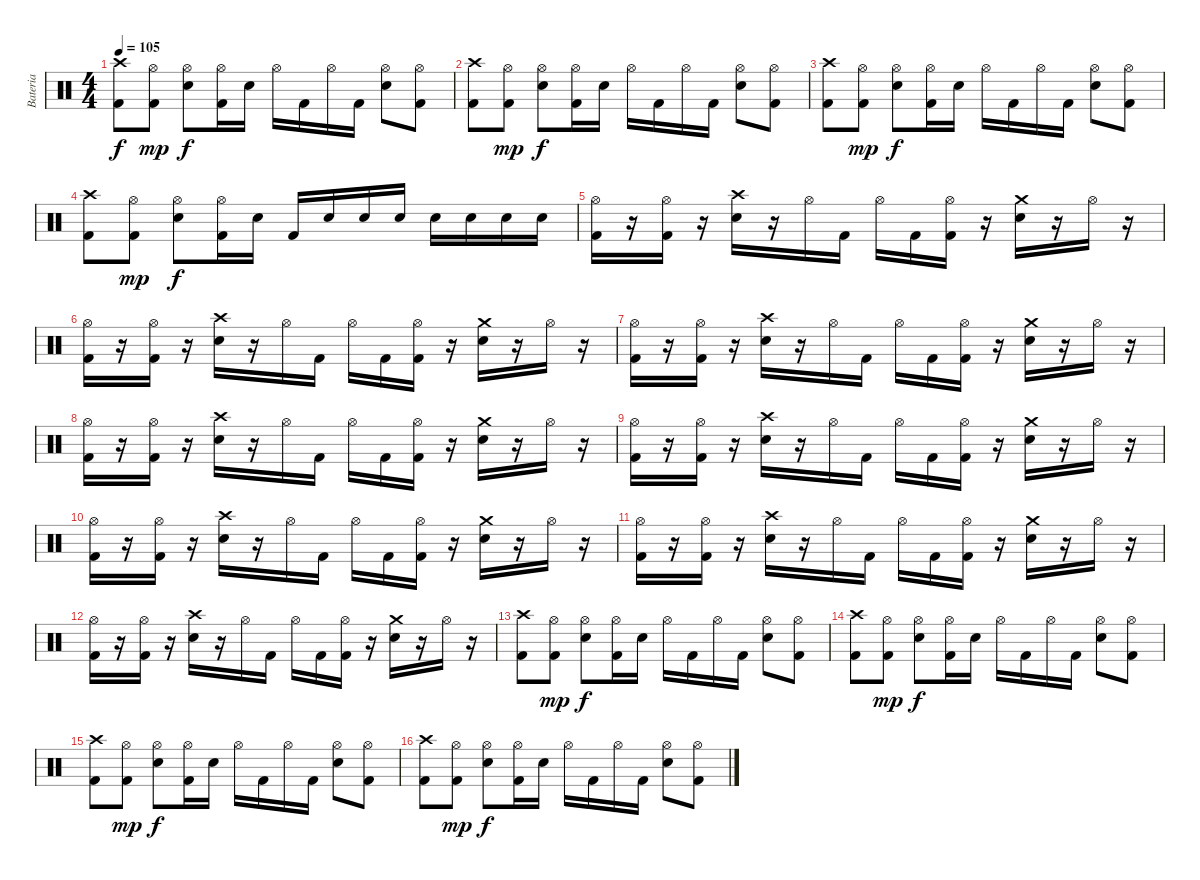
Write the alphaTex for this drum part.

\track ("Bateria" "Bateria") {instrument percussion}
\staff {score}
\articulation defaults
\ts (4 4)
\tempo 105
\clef neutral
\ks c
("Kick (hit) 2" "Crash high (hit)").8{dy f} ("Kick (hit) 2" "Hi-Hat (open)").8{dy mp} ("Snare (hit) 2" "Hi-Hat (open)").8{dy f} ("Kick (hit) 2" "Hi-Hat (open)").16 "Snare (hit) 2".16 "Hi-Hat (open)".16 "Kick (hit) 2".16 "Hi-Hat (open)".16 "Kick (hit) 2".16 ("Snare (hit) 2" "Hi-Hat (open)").8 ("Kick (hit) 2" "Hi-Hat (open)").8 |
("Kick (hit) 2" "Crash high (hit)").8 ("Kick (hit) 2" "Hi-Hat (open)").8{dy mp} ("Snare (hit) 2" "Hi-Hat (open)").8{dy f} ("Kick (hit) 2" "Hi-Hat (open)").16 "Snare (hit) 2".16 "Hi-Hat (open)".16 "Kick (hit) 2".16 "Hi-Hat (open)".16 "Kick (hit) 2".16 ("Snare (hit) 2" "Hi-Hat (open)").8 ("Kick (hit) 2" "Hi-Hat (open)").8 |
("Kick (hit) 2" "Crash high (hit)").8 ("Kick (hit) 2" "Hi-Hat (open)").8{dy mp} ("Snare (hit) 2" "Hi-Hat (open)").8{dy f} ("Kick (hit) 2" "Hi-Hat (open)").16 "Snare (hit) 2".16 "Hi-Hat (open)".16 "Kick (hit) 2".16 "Hi-Hat (open)".16 "Kick (hit) 2".16 ("Snare (hit) 2" "Hi-Hat (open)").8 ("Kick (hit) 2" "Hi-Hat (open)").8 |
("Kick (hit) 2" "Crash high (hit)").8 ("Kick (hit) 2" "Hi-Hat (open)").8{dy mp} ("Snare (hit) 2" "Hi-Hat (open)").8{dy f} ("Kick (hit) 2" "Hi-Hat (open)").16 "Snare (hit) 2".16 "Kick (hit) 2".16 "Snare (hit) 2".16 "Snare (hit) 2".16 "Snare (hit) 2".16 "Snare (hit) 2".16 "Snare (hit) 2".16 "Snare (hit) 2".16 "Snare (hit) 2".16 |
("Kick (hit) 2" "Hi-Hat (open)").16 r.16 ("Kick (hit) 2" "Hi-Hat (open)").16 r.16 ("Snare (hit) 2" "Crash high (hit)").16 r.16 "Hi-Hat (open)".16 "Kick (hit) 2".16 "Hi-Hat (open)".16 "Kick (hit) 2".16 ("Kick (hit) 2" "Hi-Hat (open)").16 r.16 ("Snare (hit) 2" "Crash medium (hit)").16 r.16 "Hi-Hat (open)".16 r.16 |
("Kick (hit) 2" "Hi-Hat (open)").16 r.16 ("Kick (hit) 2" "Hi-Hat (open)").16 r.16 ("Snare (hit) 2" "Crash high (hit)").16 r.16 "Hi-Hat (open)".16 "Kick (hit) 2".16 "Hi-Hat (open)".16 "Kick (hit) 2".16 ("Kick (hit) 2" "Hi-Hat (open)").16 r.16 ("Snare (hit) 2" "Crash medium (hit)").16 r.16 "Hi-Hat (open)".16 r.16 |
("Kick (hit) 2" "Hi-Hat (open)").16 r.16 ("Kick (hit) 2" "Hi-Hat (open)").16 r.16 ("Snare (hit) 2" "Crash high (hit)").16 r.16 "Hi-Hat (open)".16 "Kick (hit) 2".16 "Hi-Hat (open)".16 "Kick (hit) 2".16 ("Kick (hit) 2" "Hi-Hat (open)").16 r.16 ("Snare (hit) 2" "Crash medium (hit)").16 r.16 "Hi-Hat (open)".16 r.16 |
("Kick (hit) 2" "Hi-Hat (open)").16 r.16 ("Kick (hit) 2" "Hi-Hat (open)").16 r.16 ("Snare (hit) 2" "Crash high (hit)").16 r.16 "Hi-Hat (open)".16 "Kick (hit) 2".16 "Hi-Hat (open)".16 "Kick (hit) 2".16 ("Kick (hit) 2" "Hi-Hat (open)").16 r.16 ("Snare (hit) 2" "Crash medium (hit)").16 r.16 "Hi-Hat (open)".16 r.16 |
("Kick (hit) 2" "Hi-Hat (open)").16 r.16 ("Kick (hit) 2" "Hi-Hat (open)").16 r.16 ("Snare (hit) 2" "Crash high (hit)").16 r.16 "Hi-Hat (open)".16 "Kick (hit) 2".16 "Hi-Hat (open)".16 "Kick (hit) 2".16 ("Kick (hit) 2" "Hi-Hat (open)").16 r.16 ("Snare (hit) 2" "Crash medium (hit)").16 r.16 "Hi-Hat (open)".16 r.16 |
("Kick (hit) 2" "Hi-Hat (open)").16 r.16 ("Kick (hit) 2" "Hi-Hat (open)").16 r.16 ("Snare (hit) 2" "Crash high (hit)").16 r.16 "Hi-Hat (open)".16 "Kick (hit) 2".16 "Hi-Hat (open)".16 "Kick (hit) 2".16 ("Kick (hit) 2" "Hi-Hat (open)").16 r.16 ("Snare (hit) 2" "Crash medium (hit)").16 r.16 "Hi-Hat (open)".16 r.16 |
("Kick (hit) 2" "Hi-Hat (open)").16 r.16 ("Kick (hit) 2" "Hi-Hat (open)").16 r.16 ("Snare (hit) 2" "Crash high (hit)").16 r.16 "Hi-Hat (open)".16 "Kick (hit) 2".16 "Hi-Hat (open)".16 "Kick (hit) 2".16 ("Kick (hit) 2" "Hi-Hat (open)").16 r.16 ("Snare (hit) 2" "Crash medium (hit)").16 r.16 "Hi-Hat (open)".16 r.16 |
("Kick (hit) 2" "Hi-Hat (open)").16 r.16 ("Kick (hit) 2" "Hi-Hat (open)").16 r.16 ("Snare (hit) 2" "Crash high (hit)").16 r.16 "Hi-Hat (open)".16 "Kick (hit) 2".16 "Hi-Hat (open)".16 "Kick (hit) 2".16 ("Kick (hit) 2" "Hi-Hat (open)").16 r.16 ("Snare (hit) 2" "Crash medium (hit)").16 r.16 "Hi-Hat (open)".16 r.16 |
("Kick (hit) 2" "Crash high (hit)").8 ("Kick (hit) 2" "Hi-Hat (open)").8{dy mp} ("Snare (hit) 2" "Hi-Hat (open)").8{dy f} ("Kick (hit) 2" "Hi-Hat (open)").16 "Snare (hit) 2".16 "Hi-Hat (open)".16 "Kick (hit) 2".16 "Hi-Hat (open)".16 "Kick (hit) 2".16 ("Snare (hit) 2" "Hi-Hat (open)").8 ("Kick (hit) 2" "Hi-Hat (open)").8 |
("Kick (hit) 2" "Crash high (hit)").8 ("Kick (hit) 2" "Hi-Hat (open)").8{dy mp} ("Snare (hit) 2" "Hi-Hat (open)").8{dy f} ("Kick (hit) 2" "Hi-Hat (open)").16 "Snare (hit) 2".16 "Hi-Hat (open)".16 "Kick (hit) 2".16 "Hi-Hat (open)".16 "Kick (hit) 2".16 ("Snare (hit) 2" "Hi-Hat (open)").8 ("Kick (hit) 2" "Hi-Hat (open)").8 |
("Kick (hit) 2" "Crash high (hit)").8 ("Kick (hit) 2" "Hi-Hat (open)").8{dy mp} ("Snare (hit) 2" "Hi-Hat (open)").8{dy f} ("Kick (hit) 2" "Hi-Hat (open)").16 "Snare (hit) 2".16 "Hi-Hat (open)".16 "Kick (hit) 2".16 "Hi-Hat (open)".16 "Kick (hit) 2".16 ("Snare (hit) 2" "Hi-Hat (open)").8 ("Kick (hit) 2" "Hi-Hat (open)").8 |
("Kick (hit) 2" "Crash high (hit)").8 ("Kick (hit) 2" "Hi-Hat (open)").8{dy mp} ("Snare (hit) 2" "Hi-Hat (open)").8{dy f} ("Kick (hit) 2" "Hi-Hat (open)").16 "Snare (hit) 2".16 "Hi-Hat (open)".16 "Kick (hit) 2".16 "Hi-Hat (open)".16 "Kick (hit) 2".16 ("Snare (hit) 2" "Hi-Hat (open)").8 ("Kick (hit) 2" "Hi-Hat (open)").8
